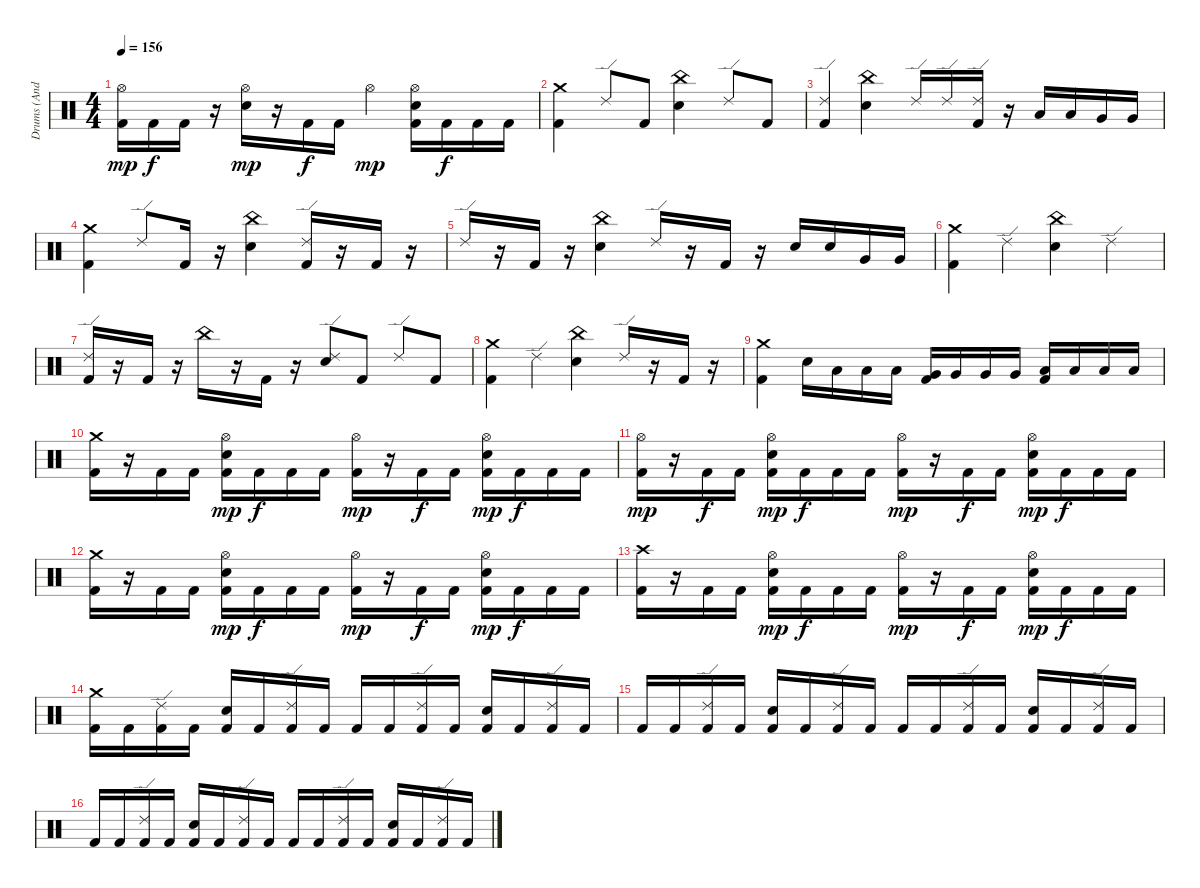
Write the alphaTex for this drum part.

\track ("Drums (Andy C)" "Drums (And") {instrument percussion}
\staff
\articulation defaults
\ts (4 4)
\tempo 156
\clef neutral
\ks c
("Hi-Hat (open)" "Kick (hit) 2").16{dy mp} "Kick (hit) 2".16{dy f} "Kick (hit) 2".16 r.16 ("Hi-Hat (open)" "Electric Snare (hit)").16{dy mp} r.16 "Kick (hit) 2".16{dy f} "Kick (hit) 2".16 "Hi-Hat (open)".4{dy mp} ("Hi-Hat (open)" "Kick (hit) 2" "Electric Snare (hit)").16 "Kick (hit) 2".16{dy f} "Kick (hit) 2".16 "Kick (hit) 2".16 |
("Crash medium (hit)" "Kick (hit) 2").4 "Ride (edge) 2".8 "Kick (hit) 2".8 ("China (hit)" "Electric Snare (hit)").4 "Ride (edge) 2".8 "Kick (hit) 2".8 |
("Ride (edge) 2" "Kick (hit) 2").4 ("China (hit)" "Electric Snare (hit)").4 "Ride (edge) 2".16 "Ride (edge) 2".16 ("Ride (edge) 2" "Kick (hit) 2").16 r.16 "Low Tom (hit)".16 "Low Tom (hit)".16 "Very Low Tom (hit)".16 "Very Low Tom (hit)".16 |
("Crash medium (hit)" "Kick (hit) 2").4 "Ride (edge) 2".8 "Kick (hit) 2".16 r.16 ("China (hit)" "Electric Snare (hit)").4 ("Ride (edge) 2" "Kick (hit) 2").16 r.16 "Kick (hit) 2".16 r.16 |
"Ride (edge) 2".16 r.16 "Kick (hit) 2".16 r.16 ("China (hit)" "Electric Snare (hit)").4 "Ride (edge) 2".16 r.16 "Kick (hit) 2".16 r.16 "Electric Snare (hit)".16 "Electric Snare (hit)".16 "Very Low Tom (hit)".16 "Very Low Tom (hit)".16 |
("Crash medium (hit)" "Kick (hit) 2").4 "Ride (edge) 2".4 ("China (hit)" "Electric Snare (hit)").4 "Ride (edge) 2".4 |
("Ride (edge) 2" "Kick (hit) 2").16 r.16 "Kick (hit) 2".16 r.16 "China (hit)".16 r.16 "Kick (hit) 2".16 r.16 ("Ride (edge) 2" "Electric Snare (hit)").8 "Kick (hit) 2".8 "Ride (edge) 2".8 "Kick (hit) 2".8 |
("Crash medium (hit)" "Kick (hit) 2").4 "Ride (edge) 2".4 ("China (hit)" "Electric Snare (hit)").4 "Ride (edge) 2".16 r.16 "Kick (hit) 2".16 r.16 |
("Crash medium (hit)" "Kick (hit) 2").4 "Electric Snare (hit)".16 "Low Tom (hit)".16 "Low Tom (hit)".16 "Low Tom (hit)".16 ("Very Low Tom (hit)" "Kick (hit) 2").16 "Very Low Tom (hit)".16 "Very Low Tom (hit)".16 "Very Low Tom (hit)".16 ("Low Floor Tom (hit)" "Kick (hit) 2").16 "Low Floor Tom (hit)".16 "Low Floor Tom (hit)".16 "Low Floor Tom (hit)".16 |
("Crash medium (hit)" "Kick (hit) 2").16 r.16 "Kick (hit) 2".16 "Kick (hit) 2".16 ("Hi-Hat (open)" "Kick (hit) 2" "Electric Snare (hit)").16{dy mp} "Kick (hit) 2".16{dy f} "Kick (hit) 2".16 "Kick (hit) 2".16 ("Hi-Hat (open)" "Kick (hit) 2").16{dy mp} r.16 "Kick (hit) 2".16{dy f} "Kick (hit) 2".16 ("Hi-Hat (open)" "Kick (hit) 2" "Electric Snare (hit)").16{dy mp} "Kick (hit) 2".16{dy f} "Kick (hit) 2".16 "Kick (hit) 2".16 |
("Hi-Hat (open)" "Kick (hit) 2").16{dy mp} r.16 "Kick (hit) 2".16{dy f} "Kick (hit) 2".16 ("Hi-Hat (open)" "Kick (hit) 2" "Electric Snare (hit)").16{dy mp} "Kick (hit) 2".16{dy f} "Kick (hit) 2".16 "Kick (hit) 2".16 ("Hi-Hat (open)" "Kick (hit) 2").16{dy mp} r.16 "Kick (hit) 2".16{dy f} "Kick (hit) 2".16 ("Hi-Hat (open)" "Kick (hit) 2" "Electric Snare (hit)").16{dy mp} "Kick (hit) 2".16{dy f} "Kick (hit) 2".16 "Kick (hit) 2".16 |
("Crash medium (hit)" "Kick (hit) 2").16 r.16 "Kick (hit) 2".16 "Kick (hit) 2".16 ("Hi-Hat (open)" "Kick (hit) 2" "Electric Snare (hit)").16{dy mp} "Kick (hit) 2".16{dy f} "Kick (hit) 2".16 "Kick (hit) 2".16 ("Hi-Hat (open)" "Kick (hit) 2").16{dy mp} r.16 "Kick (hit) 2".16{dy f} "Kick (hit) 2".16 ("Hi-Hat (open)" "Kick (hit) 2" "Electric Snare (hit)").16{dy mp} "Kick (hit) 2".16{dy f} "Kick (hit) 2".16 "Kick (hit) 2".16 |
("Crash high (hit)" "Kick (hit) 2").16 r.16 "Kick (hit) 2".16 "Kick (hit) 2".16 ("Hi-Hat (open)" "Kick (hit) 2" "Electric Snare (hit)").16{dy mp} "Kick (hit) 2".16{dy f} "Kick (hit) 2".16 "Kick (hit) 2".16 ("Hi-Hat (open)" "Kick (hit) 2").16{dy mp} r.16 "Kick (hit) 2".16{dy f} "Kick (hit) 2".16 ("Hi-Hat (open)" "Kick (hit) 2" "Electric Snare (hit)").16{dy mp} "Kick (hit) 2".16{dy f} "Kick (hit) 2".16 "Kick (hit) 2".16 |
("Crash medium (hit)" "Kick (hit) 2").16 "Kick (hit) 2".16 ("Ride (edge) 2" "Kick (hit) 2").16 "Kick (hit) 2".16 ("Kick (hit) 2" "Electric Snare (hit)").16 "Kick (hit) 2".16 ("Ride (edge) 2" "Kick (hit) 2").16 "Kick (hit) 2".16 "Kick (hit) 2".16 "Kick (hit) 2".16 ("Ride (edge) 2" "Kick (hit) 2").16 "Kick (hit) 2".16 ("Kick (hit) 2" "Electric Snare (hit)").16 "Kick (hit) 2".16 ("Ride (edge) 2" "Kick (hit) 2").16 "Kick (hit) 2".16 |
"Kick (hit) 2".16 "Kick (hit) 2".16 ("Ride (edge) 2" "Kick (hit) 2").16 "Kick (hit) 2".16 ("Kick (hit) 2" "Electric Snare (hit)").16 "Kick (hit) 2".16 ("Ride (edge) 2" "Kick (hit) 2").16 "Kick (hit) 2".16 "Kick (hit) 2".16 "Kick (hit) 2".16 ("Ride (edge) 2" "Kick (hit) 2").16 "Kick (hit) 2".16 ("Kick (hit) 2" "Electric Snare (hit)").16 "Kick (hit) 2".16 ("Ride (edge) 2" "Kick (hit) 2").16 "Kick (hit) 2".16 |
"Kick (hit) 2".16 "Kick (hit) 2".16 ("Ride (edge) 2" "Kick (hit) 2").16 "Kick (hit) 2".16 ("Kick (hit) 2" "Electric Snare (hit)").16 "Kick (hit) 2".16 ("Ride (edge) 2" "Kick (hit) 2").16 "Kick (hit) 2".16 "Kick (hit) 2".16 "Kick (hit) 2".16 ("Ride (edge) 2" "Kick (hit) 2").16 "Kick (hit) 2".16 ("Kick (hit) 2" "Electric Snare (hit)").16 "Kick (hit) 2".16 ("Ride (edge) 2" "Kick (hit) 2").16 "Kick (hit) 2".16
